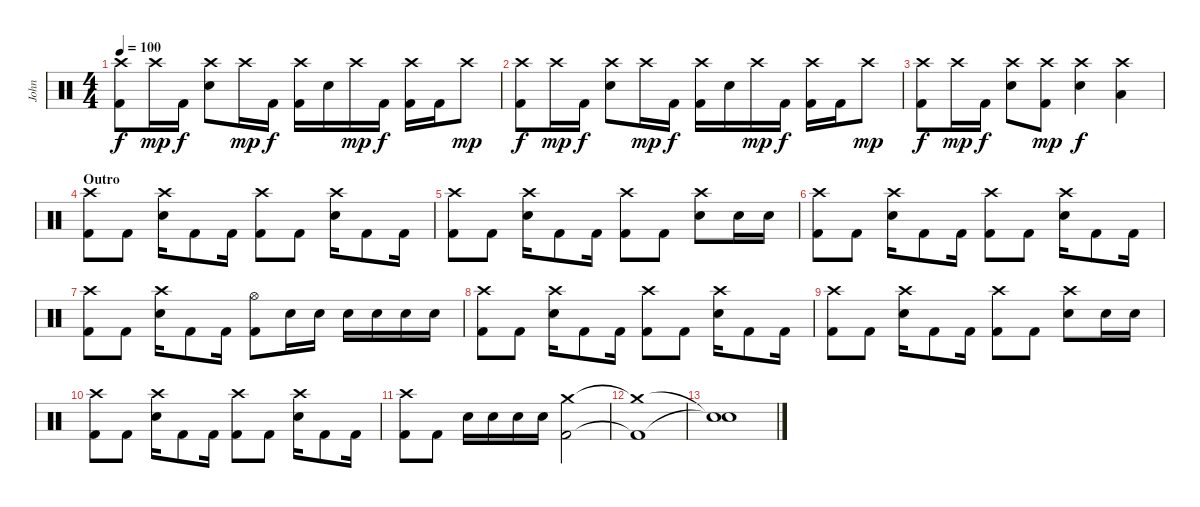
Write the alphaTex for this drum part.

\track ("John" "John") {instrument percussion}
\staff {score}
\articulation defaults
\ts (4 4)
\tempo 100
\clef neutral
\ks c
("Crash high (hit)" "Kick (hit) 2").8{dy f} "Crash high (hit)".16{dy mp} "Kick (hit) 2".16{dy f} ("Crash high (hit)" "Electric Snare (hit)").8 "Crash high (hit)".16{dy mp} "Kick (hit) 2".16{dy f} ("Crash high (hit)" "Kick (hit) 2").16 "Electric Snare (hit)".16 "Crash high (hit)".16{dy mp} "Kick (hit) 2".16{dy f} ("Crash high (hit)" "Kick (hit) 2").16 "Kick (hit) 2".16 "Crash high (hit)".8{dy mp} |
("Crash high (hit)" "Kick (hit) 2").8{dy f} "Crash high (hit)".16{dy mp} "Kick (hit) 2".16{dy f} ("Crash high (hit)" "Electric Snare (hit)").8 "Crash high (hit)".16{dy mp} "Kick (hit) 2".16{dy f} ("Crash high (hit)" "Kick (hit) 2").16 "Electric Snare (hit)".16 "Crash high (hit)".16{dy mp} "Kick (hit) 2".16{dy f} ("Crash high (hit)" "Kick (hit) 2").16 "Kick (hit) 2".16 "Crash high (hit)".8{dy mp} |
("Crash high (hit)" "Kick (hit) 2").8{dy f} "Crash high (hit)".16{dy mp} "Kick (hit) 2".16{dy f} ("Crash high (hit)" "Electric Snare (hit)").8 ("Crash high (hit)" "Kick (hit) 2").8{dy mp} ("Crash high (hit)" "Electric Snare (hit)").4{dy f} ("Crash high (hit)" "Low Tom (hit)").4 |
\section ("" "Outro")
("Crash high (hit)" "Kick (hit) 2").8 "Kick (hit) 2".8 ("Crash high (hit)" "Electric Snare (hit)").16 "Kick (hit) 2".8 "Kick (hit) 2".16 ("Crash high (hit)" "Kick (hit) 2").8 "Kick (hit) 2".8 ("Crash high (hit)" "Electric Snare (hit)").16 "Kick (hit) 2".8 "Kick (hit) 2".16 |
("Crash high (hit)" "Kick (hit) 2").8 "Kick (hit) 2".8 ("Crash high (hit)" "Electric Snare (hit)").16 "Kick (hit) 2".8 "Kick (hit) 2".16 ("Crash high (hit)" "Kick (hit) 2").8 "Kick (hit) 2".8 ("Crash high (hit)" "Electric Snare (hit)").8 "Electric Snare (hit)".16 "Electric Snare (hit)".16 |
("Crash high (hit)" "Kick (hit) 2").8 "Kick (hit) 2".8 ("Crash high (hit)" "Electric Snare (hit)").16 "Kick (hit) 2".8 "Kick (hit) 2".16 ("Crash high (hit)" "Kick (hit) 2").8 "Kick (hit) 2".8 ("Crash high (hit)" "Electric Snare (hit)").16 "Kick (hit) 2".8 "Kick (hit) 2".16 |
("Crash high (hit)" "Kick (hit) 2").8 "Kick (hit) 2".8 ("Crash high (hit)" "Electric Snare (hit)").16 "Kick (hit) 2".8 "Kick (hit) 2".16 ("Hi-Hat (open)" "Kick (hit) 2").8 "Electric Snare (hit)".16 "Electric Snare (hit)".16 "Electric Snare (hit)".16 "Electric Snare (hit)".16 "Electric Snare (hit)".16 "Electric Snare (hit)".16 |
("Crash high (hit)" "Kick (hit) 2").8 "Kick (hit) 2".8 ("Crash high (hit)" "Electric Snare (hit)").16 "Kick (hit) 2".8 "Kick (hit) 2".16 ("Crash high (hit)" "Kick (hit) 2").8 "Kick (hit) 2".8 ("Crash high (hit)" "Electric Snare (hit)").16 "Kick (hit) 2".8 "Kick (hit) 2".16 |
("Crash high (hit)" "Kick (hit) 2").8 "Kick (hit) 2".8 ("Crash high (hit)" "Electric Snare (hit)").16 "Kick (hit) 2".8 "Kick (hit) 2".16 ("Crash high (hit)" "Kick (hit) 2").8 "Kick (hit) 2".8 ("Crash high (hit)" "Electric Snare (hit)").8 "Electric Snare (hit)".16 "Electric Snare (hit)".16 |
("Crash high (hit)" "Kick (hit) 2").8 "Kick (hit) 2".8 ("Crash high (hit)" "Electric Snare (hit)").16 "Kick (hit) 2".8 "Kick (hit) 2".16 ("Crash high (hit)" "Kick (hit) 2").8 "Kick (hit) 2".8 ("Crash high (hit)" "Electric Snare (hit)").16 "Kick (hit) 2".8 "Kick (hit) 2".16 |
("Crash high (hit)" "Kick (hit) 2").8 "Kick (hit) 2".8 "Electric Snare (hit)".16 "Electric Snare (hit)".16 "Electric Snare (hit)".16 "Electric Snare (hit)".16 ("Crash medium (hit)" "Kick (hit) 2").2 |
("Crash medium (hit)"{t} "Kick (hit) 2"{t}).1 |
("Snare (hit)"{t} "Snare (hit)"{t}).1
